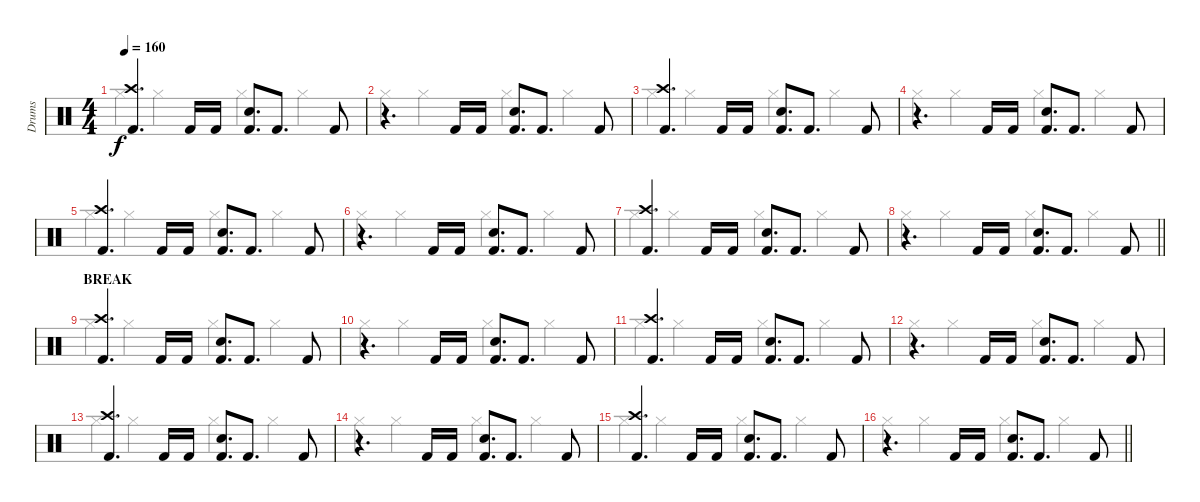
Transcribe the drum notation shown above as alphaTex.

\track ("Drums" "Drums") {instrument percussion}
\staff {score}
\articulation defaults
\voice
\ts (4 4)
\tempo 160
\clef neutral
\ks c
("Crash high (hit)" "Kick (hit) 2").4{d dy f} "Kick (hit) 2".16 "Kick (hit) 2".16 ("Snare (hit) 2" "Kick (hit) 2").8{d} "Kick (hit) 2".8{d} "Kick (hit) 2".8 |
r.4{d} "Kick (hit) 2".16 "Kick (hit) 2".16 ("Snare (hit) 2" "Kick (hit) 2").8{d} "Kick (hit) 2".8{d} "Kick (hit) 2".8 |
("Crash high (hit)" "Kick (hit) 2").4{d} "Kick (hit) 2".16 "Kick (hit) 2".16 ("Snare (hit) 2" "Kick (hit) 2").8{d} "Kick (hit) 2".8{d} "Kick (hit) 2".8 |
r.4{d} "Kick (hit) 2".16 "Kick (hit) 2".16 ("Snare (hit) 2" "Kick (hit) 2").8{d} "Kick (hit) 2".8{d} "Kick (hit) 2".8 |
("Crash high (hit)" "Kick (hit) 2").4{d} "Kick (hit) 2".16 "Kick (hit) 2".16 ("Snare (hit) 2" "Kick (hit) 2").8{d} "Kick (hit) 2".8{d} "Kick (hit) 2".8 |
r.4{d} "Kick (hit) 2".16 "Kick (hit) 2".16 ("Snare (hit) 2" "Kick (hit) 2").8{d} "Kick (hit) 2".8{d} "Kick (hit) 2".8 |
("Crash high (hit)" "Kick (hit) 2").4{d} "Kick (hit) 2".16 "Kick (hit) 2".16 ("Snare (hit) 2" "Kick (hit) 2").8{d} "Kick (hit) 2".8{d} "Kick (hit) 2".8 |
\barLineRight lightlight
r.4{d} "Kick (hit) 2".16 "Kick (hit) 2".16 ("Snare (hit) 2" "Kick (hit) 2").8{d} "Kick (hit) 2".8{d} "Kick (hit) 2".8 |
\section ("" "BREAK")
("Crash high (hit)" "Kick (hit) 2").4{d} "Kick (hit) 2".16 "Kick (hit) 2".16 ("Snare (hit) 2" "Kick (hit) 2").8{d} "Kick (hit) 2".8{d} "Kick (hit) 2".8 |
r.4{d} "Kick (hit) 2".16 "Kick (hit) 2".16 ("Snare (hit) 2" "Kick (hit) 2").8{d} "Kick (hit) 2".8{d} "Kick (hit) 2".8 |
("Crash high (hit)" "Kick (hit) 2").4{d} "Kick (hit) 2".16 "Kick (hit) 2".16 ("Snare (hit) 2" "Kick (hit) 2").8{d} "Kick (hit) 2".8{d} "Kick (hit) 2".8 |
r.4{d} "Kick (hit) 2".16 "Kick (hit) 2".16 ("Snare (hit) 2" "Kick (hit) 2").8{d} "Kick (hit) 2".8{d} "Kick (hit) 2".8 |
("Crash high (hit)" "Kick (hit) 2").4{d} "Kick (hit) 2".16 "Kick (hit) 2".16 ("Snare (hit) 2" "Kick (hit) 2").8{d} "Kick (hit) 2".8{d} "Kick (hit) 2".8 |
r.4{d} "Kick (hit) 2".16 "Kick (hit) 2".16 ("Snare (hit) 2" "Kick (hit) 2").8{d} "Kick (hit) 2".8{d} "Kick (hit) 2".8 |
("Crash high (hit)" "Kick (hit) 2").4{d} "Kick (hit) 2".16 "Kick (hit) 2".16 ("Snare (hit) 2" "Kick (hit) 2").8{d} "Kick (hit) 2".8{d} "Kick (hit) 2".8 |
\barLineRight lightlight
r.4{d} "Kick (hit) 2".16 "Kick (hit) 2".16 ("Snare (hit) 2" "Kick (hit) 2").8{d} "Kick (hit) 2".8{d} "Kick (hit) 2".8
\voice
\clef neutral
\ottava regular
\simile none
\ks c "Hi-Hat (closed)".4{dy f} "Hi-Hat (closed)".4 "Hi-Hat (closed)".4 "Hi-Hat (closed)".4
|
"Hi-Hat (closed)".4 "Hi-Hat (closed)".4 "Hi-Hat (closed)".4 "Hi-Hat (closed)".4 |
"Hi-Hat (closed)".4 "Hi-Hat (closed)".4 "Hi-Hat (closed)".4 "Hi-Hat (closed)".4 |
"Hi-Hat (closed)".4 "Hi-Hat (closed)".4 "Hi-Hat (closed)".4 "Hi-Hat (closed)".4 |
"Hi-Hat (closed)".4 "Hi-Hat (closed)".4 "Hi-Hat (closed)".4 "Hi-Hat (closed)".4 |
"Hi-Hat (closed)".4 "Hi-Hat (closed)".4 "Hi-Hat (closed)".4 "Hi-Hat (closed)".4 |
"Hi-Hat (closed)".4 "Hi-Hat (closed)".4 "Hi-Hat (closed)".4 "Hi-Hat (closed)".4 |
\barLineRight lightlight "Hi-Hat (closed)".4 "Hi-Hat (closed)".4 "Hi-Hat (closed)".4 "Hi-Hat (closed)".4
|
"Hi-Hat (closed)".4 "Hi-Hat (closed)".4 "Hi-Hat (closed)".4 "Hi-Hat (closed)".4 |
"Hi-Hat (closed)".4 "Hi-Hat (closed)".4 "Hi-Hat (closed)".4 "Hi-Hat (closed)".4 |
"Hi-Hat (closed)".4 "Hi-Hat (closed)".4 "Hi-Hat (closed)".4 "Hi-Hat (closed)".4 |
"Hi-Hat (closed)".4 "Hi-Hat (closed)".4 "Hi-Hat (closed)".4 "Hi-Hat (closed)".4 |
"Hi-Hat (closed)".4 "Hi-Hat (closed)".4 "Hi-Hat (closed)".4 "Hi-Hat (closed)".4 |
"Hi-Hat (closed)".4 "Hi-Hat (closed)".4 "Hi-Hat (closed)".4 "Hi-Hat (closed)".4 |
"Hi-Hat (closed)".4 "Hi-Hat (closed)".4 "Hi-Hat (closed)".4 "Hi-Hat (closed)".4 |
\barLineRight lightlight "Hi-Hat (closed)".4 "Hi-Hat (closed)".4 "Hi-Hat (closed)".4 "Hi-Hat (closed)".4
